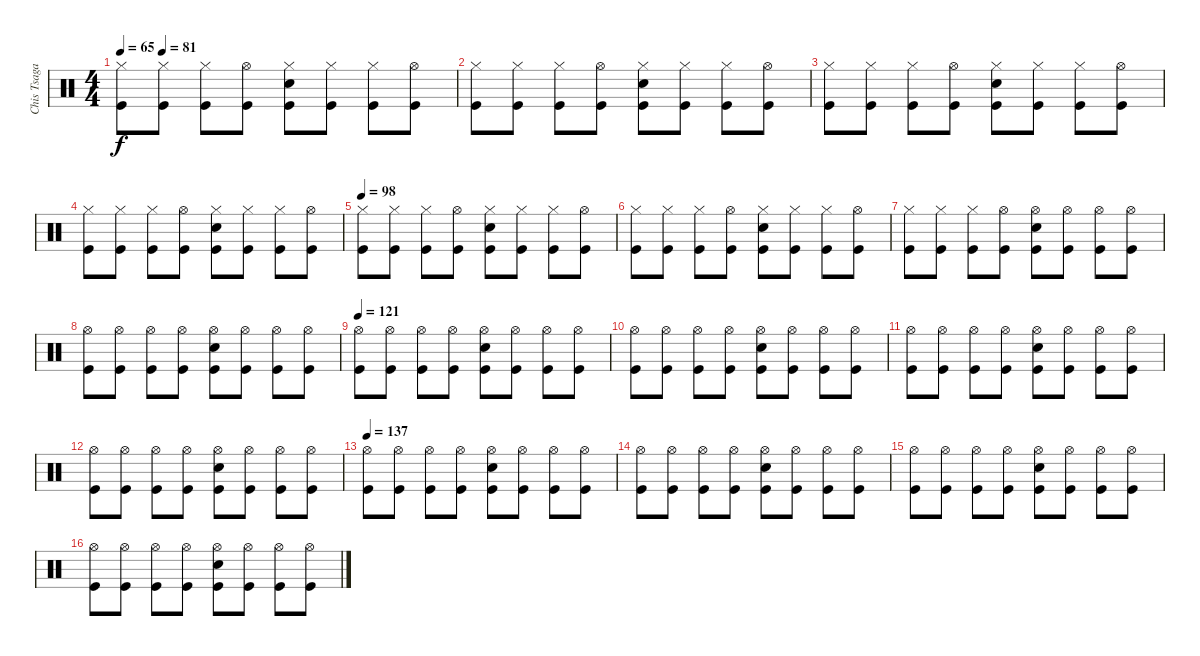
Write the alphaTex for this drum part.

\track ("Chis Tsagakis" "Chis Tsaga") {instrument percussion}
\staff {score}
\articulation defaults
\ts (4 4)
\tempo 65
\tempo (81 0.125)
\clef neutral
\ks c
("Hi-Hat (closed)" "Kick (hit)").8{dy f} ("Hi-Hat (closed)" "Kick (hit)").8 ("Hi-Hat (closed)" "Kick (hit)").8 ("Hi-Hat (open)" "Kick (hit)").8 ("Hi-Hat (closed)" "Electric Snare (hit)" "Kick (hit)").8 ("Hi-Hat (closed)" "Kick (hit)").8 ("Hi-Hat (closed)" "Kick (hit)").8 ("Hi-Hat (open)" "Kick (hit)").8 |
("Hi-Hat (closed)" "Kick (hit)").8 ("Hi-Hat (closed)" "Kick (hit)").8 ("Hi-Hat (closed)" "Kick (hit)").8 ("Hi-Hat (open)" "Kick (hit)").8 ("Hi-Hat (closed)" "Electric Snare (hit)" "Kick (hit)").8 ("Hi-Hat (closed)" "Kick (hit)").8 ("Hi-Hat (closed)" "Kick (hit)").8 ("Hi-Hat (open)" "Kick (hit)").8 |
("Hi-Hat (closed)" "Kick (hit)").8 ("Hi-Hat (closed)" "Kick (hit)").8 ("Hi-Hat (closed)" "Kick (hit)").8 ("Hi-Hat (open)" "Kick (hit)").8 ("Hi-Hat (closed)" "Electric Snare (hit)" "Kick (hit)").8 ("Hi-Hat (closed)" "Kick (hit)").8 ("Hi-Hat (closed)" "Kick (hit)").8 ("Hi-Hat (open)" "Kick (hit)").8 |
("Hi-Hat (closed)" "Kick (hit)").8 ("Hi-Hat (closed)" "Kick (hit)").8 ("Hi-Hat (closed)" "Kick (hit)").8 ("Hi-Hat (open)" "Kick (hit)").8 ("Hi-Hat (closed)" "Electric Snare (hit)" "Kick (hit)").8 ("Hi-Hat (closed)" "Kick (hit)").8 ("Hi-Hat (closed)" "Kick (hit)").8 ("Hi-Hat (open)" "Kick (hit)").8 |
\tempo 98
("Hi-Hat (closed)" "Kick (hit)").8 ("Hi-Hat (closed)" "Kick (hit)").8 ("Hi-Hat (closed)" "Kick (hit)").8 ("Hi-Hat (open)" "Kick (hit)").8 ("Hi-Hat (closed)" "Electric Snare (hit)" "Kick (hit)").8 ("Hi-Hat (closed)" "Kick (hit)").8 ("Hi-Hat (closed)" "Kick (hit)").8 ("Hi-Hat (open)" "Kick (hit)").8 |
("Hi-Hat (closed)" "Kick (hit)").8 ("Hi-Hat (closed)" "Kick (hit)").8 ("Hi-Hat (closed)" "Kick (hit)").8 ("Hi-Hat (open)" "Kick (hit)").8 ("Hi-Hat (closed)" "Electric Snare (hit)" "Kick (hit)").8 ("Hi-Hat (closed)" "Kick (hit)").8 ("Hi-Hat (closed)" "Kick (hit)").8 ("Hi-Hat (open)" "Kick (hit)").8 |
("Hi-Hat (closed)" "Kick (hit)").8 ("Hi-Hat (closed)" "Kick (hit)").8 ("Hi-Hat (closed)" "Kick (hit)").8 ("Hi-Hat (open)" "Kick (hit)").8 ("Hi-Hat (open)" "Electric Snare (hit)" "Kick (hit)").8 ("Hi-Hat (open)" "Kick (hit)").8 ("Hi-Hat (open)" "Kick (hit)").8 ("Hi-Hat (open)" "Kick (hit)").8 |
("Hi-Hat (open)" "Kick (hit)").8 ("Hi-Hat (open)" "Kick (hit)").8 ("Hi-Hat (open)" "Kick (hit)").8 ("Hi-Hat (open)" "Kick (hit)").8 ("Hi-Hat (open)" "Electric Snare (hit)" "Kick (hit)").8 ("Hi-Hat (open)" "Kick (hit)").8 ("Hi-Hat (open)" "Kick (hit)").8 ("Hi-Hat (open)" "Kick (hit)").8 |
\tempo 121
("Hi-Hat (open)" "Kick (hit)").8 ("Hi-Hat (open)" "Kick (hit)").8 ("Hi-Hat (open)" "Kick (hit)").8 ("Hi-Hat (open)" "Kick (hit)").8 ("Hi-Hat (open)" "Electric Snare (hit)" "Kick (hit)").8 ("Hi-Hat (open)" "Kick (hit)").8 ("Hi-Hat (open)" "Kick (hit)").8 ("Hi-Hat (open)" "Kick (hit)").8 |
("Hi-Hat (open)" "Kick (hit)").8 ("Hi-Hat (open)" "Kick (hit)").8 ("Hi-Hat (open)" "Kick (hit)").8 ("Hi-Hat (open)" "Kick (hit)").8 ("Hi-Hat (open)" "Electric Snare (hit)" "Kick (hit)").8 ("Hi-Hat (open)" "Kick (hit)").8 ("Hi-Hat (open)" "Kick (hit)").8 ("Hi-Hat (open)" "Kick (hit)").8 |
("Hi-Hat (open)" "Kick (hit)").8 ("Hi-Hat (open)" "Kick (hit)").8 ("Hi-Hat (open)" "Kick (hit)").8 ("Hi-Hat (open)" "Kick (hit)").8 ("Hi-Hat (open)" "Electric Snare (hit)" "Kick (hit)").8 ("Hi-Hat (open)" "Kick (hit)").8 ("Hi-Hat (open)" "Kick (hit)").8 ("Hi-Hat (open)" "Kick (hit)").8 |
("Hi-Hat (open)" "Kick (hit)").8 ("Hi-Hat (open)" "Kick (hit)").8 ("Hi-Hat (open)" "Kick (hit)").8 ("Hi-Hat (open)" "Kick (hit)").8 ("Hi-Hat (open)" "Electric Snare (hit)" "Kick (hit)").8 ("Hi-Hat (open)" "Kick (hit)").8 ("Hi-Hat (open)" "Kick (hit)").8 ("Hi-Hat (open)" "Kick (hit)").8 |
\tempo 137
("Hi-Hat (open)" "Kick (hit)").8 ("Hi-Hat (open)" "Kick (hit)").8 ("Hi-Hat (open)" "Kick (hit)").8 ("Hi-Hat (open)" "Kick (hit)").8 ("Hi-Hat (open)" "Electric Snare (hit)" "Kick (hit)").8 ("Hi-Hat (open)" "Kick (hit)").8 ("Hi-Hat (open)" "Kick (hit)").8 ("Hi-Hat (open)" "Kick (hit)").8 |
("Hi-Hat (open)" "Kick (hit)").8 ("Hi-Hat (open)" "Kick (hit)").8 ("Hi-Hat (open)" "Kick (hit)").8 ("Hi-Hat (open)" "Kick (hit)").8 ("Hi-Hat (open)" "Electric Snare (hit)" "Kick (hit)").8 ("Hi-Hat (open)" "Kick (hit)").8 ("Hi-Hat (open)" "Kick (hit)").8 ("Hi-Hat (open)" "Kick (hit)").8 |
("Hi-Hat (open)" "Kick (hit)").8 ("Hi-Hat (open)" "Kick (hit)").8 ("Hi-Hat (open)" "Kick (hit)").8 ("Hi-Hat (open)" "Kick (hit)").8 ("Hi-Hat (open)" "Electric Snare (hit)" "Kick (hit)").8 ("Hi-Hat (open)" "Kick (hit)").8 ("Hi-Hat (open)" "Kick (hit)").8 ("Hi-Hat (open)" "Kick (hit)").8 |
("Hi-Hat (open)" "Kick (hit)").8 ("Hi-Hat (open)" "Kick (hit)").8 ("Hi-Hat (open)" "Kick (hit)").8 ("Hi-Hat (open)" "Kick (hit)").8 ("Hi-Hat (open)" "Electric Snare (hit)" "Kick (hit)").8 ("Hi-Hat (open)" "Kick (hit)").8 ("Hi-Hat (open)" "Kick (hit)").8 ("Hi-Hat (open)" "Kick (hit)").8
